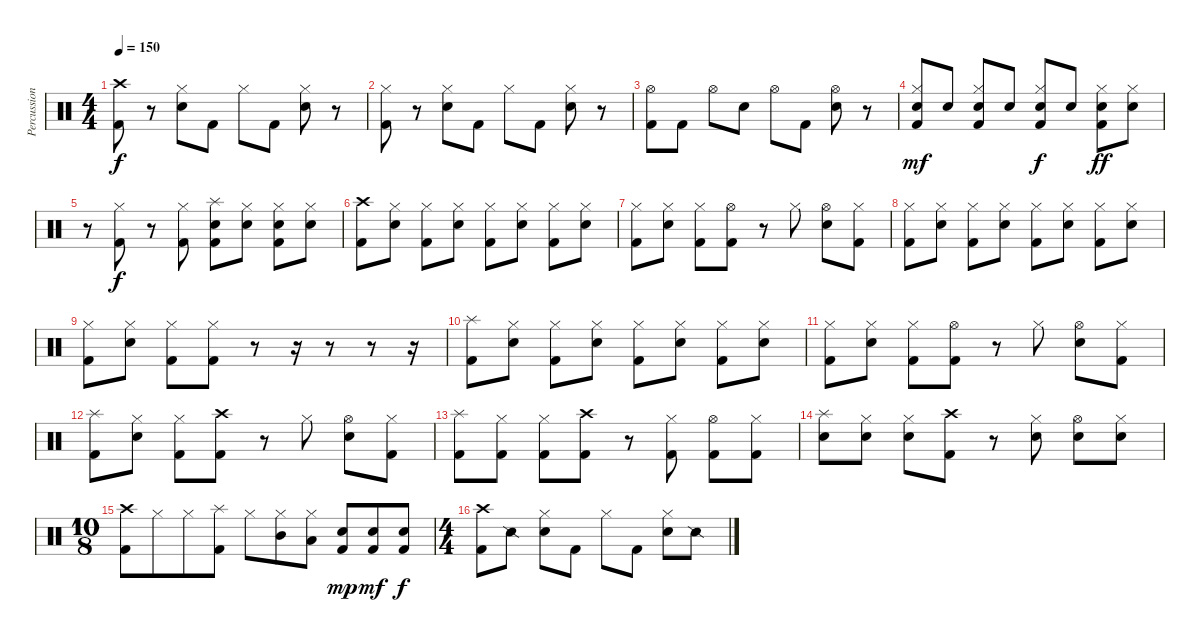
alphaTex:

\track ("Percussion" "Percussion") {instrument percussion}
\staff {score}
\articulation defaults
\ts (4 4)
\tempo 150
\clef neutral
\ks c
("Crash high (hit)" "Kick (hit) 2").8{dy f} r.8 ("Hi-Hat (closed)" "Snare (hit) 2").8 "Kick (hit) 2".8 "Hi-Hat (closed)".8 "Kick (hit) 2".8 ("Hi-Hat (closed)" "Snare (hit) 2").8 r.8 |
("Hi-Hat (closed)" "Kick (hit) 2").8 r.8 ("Hi-Hat (closed)" "Snare (hit) 2").8 "Kick (hit) 2".8 "Hi-Hat (closed)".8 "Kick (hit) 2".8 ("Hi-Hat (closed)" "Snare (hit) 2").8 r.8 |
("Hi-Hat (open)" "Kick (hit) 2").8 "Kick (hit) 2".8 "Hi-Hat (open)".8 "Snare (hit) 2".8 "Hi-Hat (open)".8 "Kick (hit) 2".8 ("Hi-Hat (open)" "Snare (hit) 2").8 r.8 |
("Hi-Hat (closed)" "Snare (hit) 2" "Kick (hit) 2").8{dy mf} "Snare (hit) 2".8 ("Hi-Hat (closed)" "Snare (hit) 2" "Kick (hit) 2").8 "Snare (hit) 2".8 ("Hi-Hat (closed)" "Snare (hit) 2" "Kick (hit) 2").8{dy f} "Snare (hit) 2".8 ("Hi-Hat (closed)" "Snare (hit) 2" "Kick (hit) 2").8{dy ff} ("Hi-Hat (closed)" "Snare (hit) 2").8 |
r.8 ("Hi-Hat (closed)" "Kick (hit) 2").8{dy f} r.8 ("Hi-Hat (closed)" "Kick (hit) 2").8 ("Splash (hit)" "Snare (hit) 2" "Kick (hit) 2").8 ("Hi-Hat (closed)" "Snare (hit) 2").8 ("Hi-Hat (closed)" "Snare (hit) 2" "Kick (hit) 2").8 ("Hi-Hat (closed)" "Snare (hit) 2").8 |
("Crash high (hit)" "Kick (hit) 2").8 ("Hi-Hat (closed)" "Snare (hit) 2").8 ("Hi-Hat (closed)" "Kick (hit) 2").8 ("Hi-Hat (closed)" "Snare (hit) 2").8 ("Hi-Hat (closed)" "Kick (hit) 2").8 ("Hi-Hat (closed)" "Snare (hit) 2").8 ("Hi-Hat (closed)" "Kick (hit) 2").8 ("Hi-Hat (closed)" "Snare (hit) 2").8 |
("Hi-Hat (closed)" "Kick (hit) 2").8 ("Hi-Hat (closed)" "Snare (hit) 2").8 ("Hi-Hat (closed)" "Kick (hit) 2").8 ("Hi-Hat (open)" "Kick (hit) 2").8 r.8 "Hi-Hat (closed)".8 ("Hi-Hat (open)" "Snare (hit) 2").8 ("Hi-Hat (closed)" "Kick (hit) 2").8 |
("Hi-Hat (closed)" "Kick (hit) 2").8 ("Hi-Hat (closed)" "Snare (hit) 2").8 ("Hi-Hat (closed)" "Kick (hit) 2").8 ("Hi-Hat (closed)" "Snare (hit) 2").8 ("Hi-Hat (closed)" "Kick (hit) 2").8 ("Hi-Hat (closed)" "Snare (hit) 2").8 ("Hi-Hat (closed)" "Kick (hit) 2").8 ("Hi-Hat (closed)" "Snare (hit) 2").8 |
("Hi-Hat (closed)" "Kick (hit) 2").8 ("Hi-Hat (closed)" "Snare (hit) 2").8 ("Hi-Hat (closed)" "Kick (hit) 2").8 ("Hi-Hat (closed)" "Kick (hit) 2").8 r.8 r.16 r.8 r.8 r.16 |
("Splash (hit)" "Kick (hit) 2").8 ("Hi-Hat (closed)" "Snare (hit) 2").8 ("Hi-Hat (closed)" "Kick (hit) 2").8 ("Hi-Hat (closed)" "Snare (hit) 2").8 ("Hi-Hat (closed)" "Kick (hit) 2").8 ("Hi-Hat (closed)" "Snare (hit) 2").8 ("Hi-Hat (closed)" "Kick (hit) 2").8 ("Hi-Hat (closed)" "Snare (hit) 2").8 |
("Hi-Hat (closed)" "Kick (hit) 2").8 ("Hi-Hat (closed)" "Snare (hit) 2").8 ("Hi-Hat (closed)" "Kick (hit) 2").8 ("Hi-Hat (open)" "Kick (hit) 2").8 r.8 "Hi-Hat (closed)".8 ("Hi-Hat (open)" "Snare (hit) 2").8 ("Hi-Hat (closed)" "Kick (hit) 2").8 |
("Splash (hit)" "Kick (hit) 2").8 ("Hi-Hat (closed)" "Snare (hit) 2").8 ("Hi-Hat (closed)" "Kick (hit) 2").8 ("Crash high (hit)" "Kick (hit) 2").8 r.8 "Hi-Hat (closed)".8 ("Hi-Hat (open)" "Snare (hit) 2").8 ("Hi-Hat (closed)" "Kick (hit) 2").8 |
("Splash (hit)" "Kick (hit) 2").8 ("Hi-Hat (closed)" "Kick (hit) 2").8 ("Hi-Hat (closed)" "Kick (hit) 2").8 ("Crash high (hit)" "Kick (hit) 2").8 r.8 ("Hi-Hat (closed)" "Kick (hit) 2").8 ("Hi-Hat (open)" "Kick (hit) 2").8 ("Hi-Hat (closed)" "Kick (hit) 2").8 |
("Splash (hit)" "Snare (hit) 2").8 ("Hi-Hat (closed)" "Snare (hit) 2").8 ("Hi-Hat (closed)" "Snare (hit) 2").8 ("Crash high (hit)" "Kick (hit) 2").8 r.8 ("Hi-Hat (closed)" "Snare (hit) 2").8 ("Hi-Hat (open)" "Snare (hit) 2").8 ("Hi-Hat (closed)" "Snare (hit) 2").8 |
\ts (10 8)
("Crash high (hit)" "Kick (hit) 2").8 "Hi-Hat (closed)".8 "Hi-Hat (closed)".8 ("Splash (hit)" "Kick (hit) 2").8 "Hi-Hat (closed)".8 ("Hi-Hat (closed)" "Mid Tom (hit)").8 ("Hi-Hat (closed)" "Low Tom (hit)").8 ("Snare (hit) 2" "Kick (hit) 2").8{dy mp} ("Snare (hit) 2" "Kick (hit) 2").8{dy mf} ("Snare (hit) 2" "Kick (hit) 2").8{dy f} |
\ts (4 4)
("Crash high (hit)" "Kick (hit) 2").8 "Snare (side stick) 2".8 ("Hi-Hat (closed)" "Snare (hit) 2").8 "Kick (hit) 2".8 "Hi-Hat (closed)".8 "Kick (hit) 2".8 ("Hi-Hat (closed)" "Snare (hit) 2").8 "Snare (side stick) 2".8
